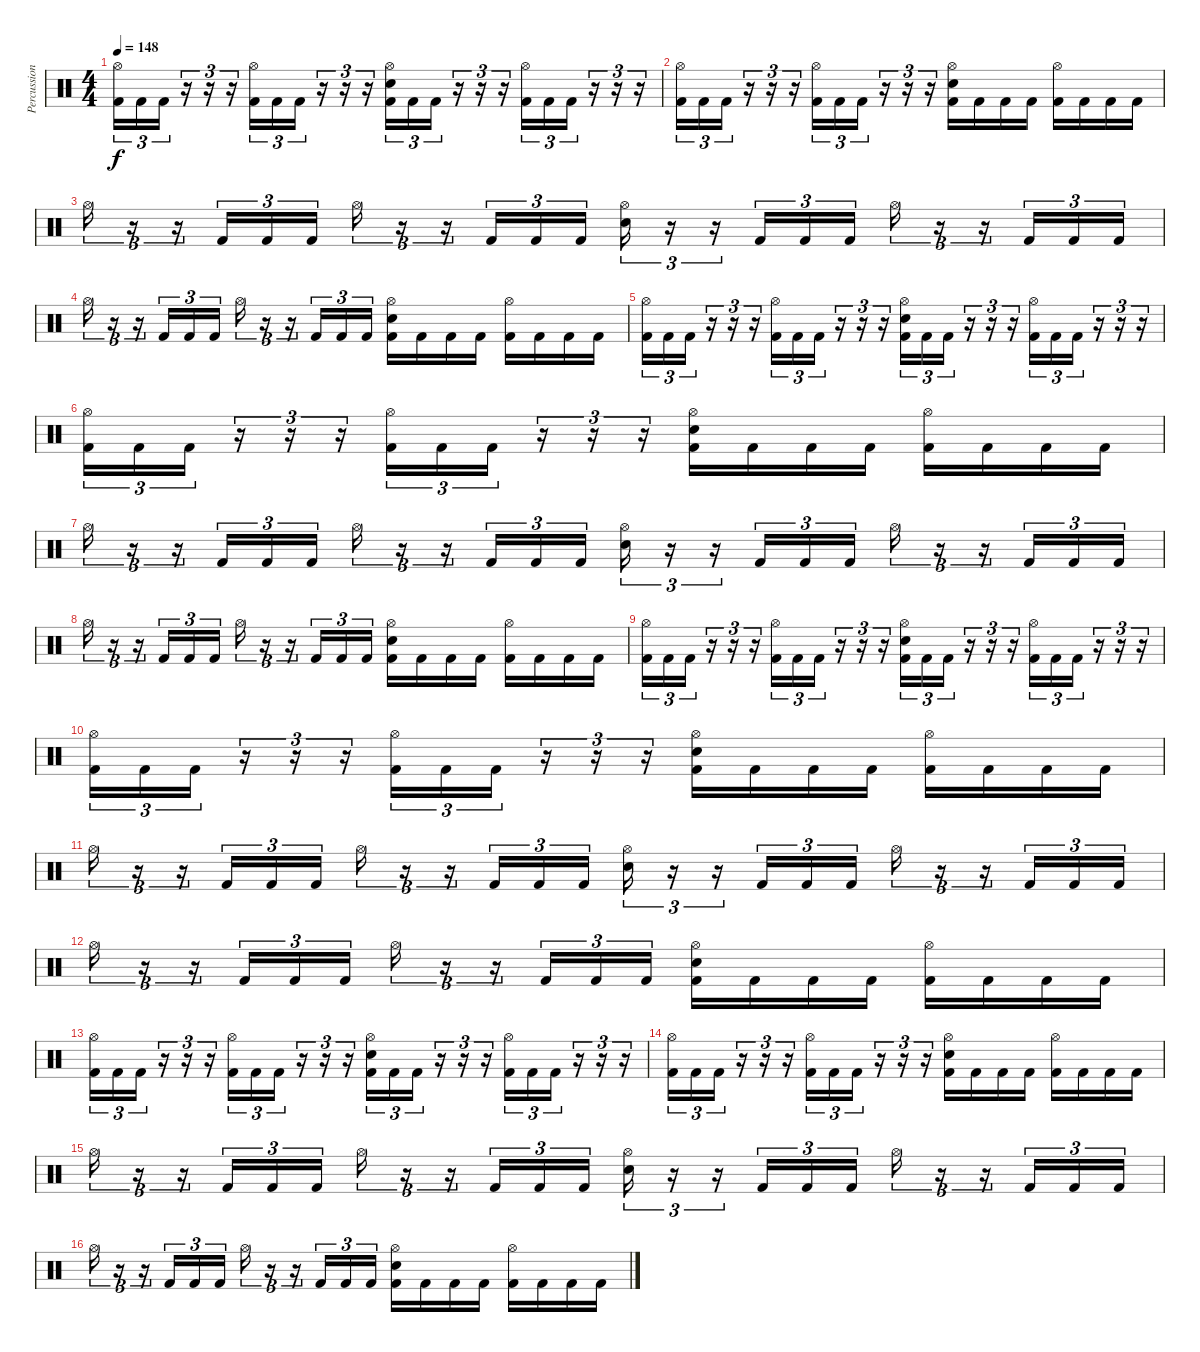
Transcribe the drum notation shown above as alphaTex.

\track ("Percussion" "Percussion") {instrument percussion}
\staff {score}
\articulation defaults
\ts (4 4)
\tempo 148
\clef neutral
\ks c
("Hi-Hat (open)" "Kick (hit) 2").16{tu (3 2) dy f} "Kick (hit) 2".16{tu (3 2)} "Kick (hit) 2".16{tu (3 2)} r.16{tu (3 2)} r.16{tu (3 2)} r.16{tu (3 2)} ("Hi-Hat (open)" "Kick (hit) 2").16{tu (3 2)} "Kick (hit) 2".16{tu (3 2)} "Kick (hit) 2".16{tu (3 2)} r.16{tu (3 2)} r.16{tu (3 2)} r.16{tu (3 2)} ("Hi-Hat (open)" "Electric Snare (hit)" "Kick (hit) 2").16{tu (3 2)} "Kick (hit) 2".16{tu (3 2)} "Kick (hit) 2".16{tu (3 2)} r.16{tu (3 2)} r.16{tu (3 2)} r.16{tu (3 2)} ("Hi-Hat (open)" "Kick (hit) 2").16{tu (3 2)} "Kick (hit) 2".16{tu (3 2)} "Kick (hit) 2".16{tu (3 2)} r.16{tu (3 2)} r.16{tu (3 2)} r.16{tu (3 2)} |
("Hi-Hat (open)" "Kick (hit) 2").16{tu (3 2)} "Kick (hit) 2".16{tu (3 2)} "Kick (hit) 2".16{tu (3 2)} r.16{tu (3 2)} r.16{tu (3 2)} r.16{tu (3 2)} ("Hi-Hat (open)" "Kick (hit) 2").16{tu (3 2)} "Kick (hit) 2".16{tu (3 2)} "Kick (hit) 2".16{tu (3 2)} r.16{tu (3 2)} r.16{tu (3 2)} r.16{tu (3 2)} ("Hi-Hat (open)" "Electric Snare (hit)" "Kick (hit) 2").16 "Kick (hit) 2".16 "Kick (hit) 2".16 "Kick (hit) 2".16 ("Hi-Hat (open)" "Kick (hit) 2").16 "Kick (hit) 2".16 "Kick (hit) 2".16 "Kick (hit) 2".16 |
"Hi-Hat (open)".16{tu (3 2)} r.16{tu (3 2)} r.16{tu (3 2)} "Kick (hit) 2".16{tu (3 2)} "Kick (hit) 2".16{tu (3 2)} "Kick (hit) 2".16{tu (3 2)} "Hi-Hat (open)".16{tu (3 2)} r.16{tu (3 2)} r.16{tu (3 2)} "Kick (hit) 2".16{tu (3 2)} "Kick (hit) 2".16{tu (3 2)} "Kick (hit) 2".16{tu (3 2)} ("Hi-Hat (open)" "Electric Snare (hit)").16{tu (3 2)} r.16{tu (3 2)} r.16{tu (3 2)} "Kick (hit) 2".16{tu (3 2)} "Kick (hit) 2".16{tu (3 2)} "Kick (hit) 2".16{tu (3 2)} "Hi-Hat (open)".16{tu (3 2)} r.16{tu (3 2)} r.16{tu (3 2)} "Kick (hit) 2".16{tu (3 2)} "Kick (hit) 2".16{tu (3 2)} "Kick (hit) 2".16{tu (3 2)} |
"Hi-Hat (open)".16{tu (3 2)} r.16{tu (3 2)} r.16{tu (3 2)} "Kick (hit) 2".16{tu (3 2)} "Kick (hit) 2".16{tu (3 2)} "Kick (hit) 2".16{tu (3 2)} "Hi-Hat (open)".16{tu (3 2)} r.16{tu (3 2)} r.16{tu (3 2)} "Kick (hit) 2".16{tu (3 2)} "Kick (hit) 2".16{tu (3 2)} "Kick (hit) 2".16{tu (3 2)} ("Hi-Hat (open)" "Electric Snare (hit)" "Kick (hit) 2").16 "Kick (hit) 2".16 "Kick (hit) 2".16 "Kick (hit) 2".16 ("Hi-Hat (open)" "Kick (hit) 2").16 "Kick (hit) 2".16 "Kick (hit) 2".16 "Kick (hit) 2".16 |
("Hi-Hat (open)" "Kick (hit) 2").16{tu (3 2)} "Kick (hit) 2".16{tu (3 2)} "Kick (hit) 2".16{tu (3 2)} r.16{tu (3 2)} r.16{tu (3 2)} r.16{tu (3 2)} ("Hi-Hat (open)" "Kick (hit) 2").16{tu (3 2)} "Kick (hit) 2".16{tu (3 2)} "Kick (hit) 2".16{tu (3 2)} r.16{tu (3 2)} r.16{tu (3 2)} r.16{tu (3 2)} ("Hi-Hat (open)" "Electric Snare (hit)" "Kick (hit) 2").16{tu (3 2)} "Kick (hit) 2".16{tu (3 2)} "Kick (hit) 2".16{tu (3 2)} r.16{tu (3 2)} r.16{tu (3 2)} r.16{tu (3 2)} ("Hi-Hat (open)" "Kick (hit) 2").16{tu (3 2)} "Kick (hit) 2".16{tu (3 2)} "Kick (hit) 2".16{tu (3 2)} r.16{tu (3 2)} r.16{tu (3 2)} r.16{tu (3 2)} |
("Hi-Hat (open)" "Kick (hit) 2").16{tu (3 2)} "Kick (hit) 2".16{tu (3 2)} "Kick (hit) 2".16{tu (3 2)} r.16{tu (3 2)} r.16{tu (3 2)} r.16{tu (3 2)} ("Hi-Hat (open)" "Kick (hit) 2").16{tu (3 2)} "Kick (hit) 2".16{tu (3 2)} "Kick (hit) 2".16{tu (3 2)} r.16{tu (3 2)} r.16{tu (3 2)} r.16{tu (3 2)} ("Hi-Hat (open)" "Electric Snare (hit)" "Kick (hit) 2").16 "Kick (hit) 2".16 "Kick (hit) 2".16 "Kick (hit) 2".16 ("Hi-Hat (open)" "Kick (hit) 2").16 "Kick (hit) 2".16 "Kick (hit) 2".16 "Kick (hit) 2".16 |
"Hi-Hat (open)".16{tu (3 2)} r.16{tu (3 2)} r.16{tu (3 2)} "Kick (hit) 2".16{tu (3 2)} "Kick (hit) 2".16{tu (3 2)} "Kick (hit) 2".16{tu (3 2)} "Hi-Hat (open)".16{tu (3 2)} r.16{tu (3 2)} r.16{tu (3 2)} "Kick (hit) 2".16{tu (3 2)} "Kick (hit) 2".16{tu (3 2)} "Kick (hit) 2".16{tu (3 2)} ("Hi-Hat (open)" "Electric Snare (hit)").16{tu (3 2)} r.16{tu (3 2)} r.16{tu (3 2)} "Kick (hit) 2".16{tu (3 2)} "Kick (hit) 2".16{tu (3 2)} "Kick (hit) 2".16{tu (3 2)} "Hi-Hat (open)".16{tu (3 2)} r.16{tu (3 2)} r.16{tu (3 2)} "Kick (hit) 2".16{tu (3 2)} "Kick (hit) 2".16{tu (3 2)} "Kick (hit) 2".16{tu (3 2)} |
"Hi-Hat (open)".16{tu (3 2)} r.16{tu (3 2)} r.16{tu (3 2)} "Kick (hit) 2".16{tu (3 2)} "Kick (hit) 2".16{tu (3 2)} "Kick (hit) 2".16{tu (3 2)} "Hi-Hat (open)".16{tu (3 2)} r.16{tu (3 2)} r.16{tu (3 2)} "Kick (hit) 2".16{tu (3 2)} "Kick (hit) 2".16{tu (3 2)} "Kick (hit) 2".16{tu (3 2)} ("Hi-Hat (open)" "Electric Snare (hit)" "Kick (hit) 2").16 "Kick (hit) 2".16 "Kick (hit) 2".16 "Kick (hit) 2".16 ("Hi-Hat (open)" "Kick (hit) 2").16 "Kick (hit) 2".16 "Kick (hit) 2".16 "Kick (hit) 2".16 |
("Hi-Hat (open)" "Kick (hit) 2").16{tu (3 2)} "Kick (hit) 2".16{tu (3 2)} "Kick (hit) 2".16{tu (3 2)} r.16{tu (3 2)} r.16{tu (3 2)} r.16{tu (3 2)} ("Hi-Hat (open)" "Kick (hit) 2").16{tu (3 2)} "Kick (hit) 2".16{tu (3 2)} "Kick (hit) 2".16{tu (3 2)} r.16{tu (3 2)} r.16{tu (3 2)} r.16{tu (3 2)} ("Hi-Hat (open)" "Electric Snare (hit)" "Kick (hit) 2").16{tu (3 2)} "Kick (hit) 2".16{tu (3 2)} "Kick (hit) 2".16{tu (3 2)} r.16{tu (3 2)} r.16{tu (3 2)} r.16{tu (3 2)} ("Hi-Hat (open)" "Kick (hit) 2").16{tu (3 2)} "Kick (hit) 2".16{tu (3 2)} "Kick (hit) 2".16{tu (3 2)} r.16{tu (3 2)} r.16{tu (3 2)} r.16{tu (3 2)} |
("Hi-Hat (open)" "Kick (hit) 2").16{tu (3 2)} "Kick (hit) 2".16{tu (3 2)} "Kick (hit) 2".16{tu (3 2)} r.16{tu (3 2)} r.16{tu (3 2)} r.16{tu (3 2)} ("Hi-Hat (open)" "Kick (hit) 2").16{tu (3 2)} "Kick (hit) 2".16{tu (3 2)} "Kick (hit) 2".16{tu (3 2)} r.16{tu (3 2)} r.16{tu (3 2)} r.16{tu (3 2)} ("Hi-Hat (open)" "Electric Snare (hit)" "Kick (hit) 2").16 "Kick (hit) 2".16 "Kick (hit) 2".16 "Kick (hit) 2".16 ("Hi-Hat (open)" "Kick (hit) 2").16 "Kick (hit) 2".16 "Kick (hit) 2".16 "Kick (hit) 2".16 |
"Hi-Hat (open)".16{tu (3 2)} r.16{tu (3 2)} r.16{tu (3 2)} "Kick (hit) 2".16{tu (3 2)} "Kick (hit) 2".16{tu (3 2)} "Kick (hit) 2".16{tu (3 2)} "Hi-Hat (open)".16{tu (3 2)} r.16{tu (3 2)} r.16{tu (3 2)} "Kick (hit) 2".16{tu (3 2)} "Kick (hit) 2".16{tu (3 2)} "Kick (hit) 2".16{tu (3 2)} ("Hi-Hat (open)" "Electric Snare (hit)").16{tu (3 2)} r.16{tu (3 2)} r.16{tu (3 2)} "Kick (hit) 2".16{tu (3 2)} "Kick (hit) 2".16{tu (3 2)} "Kick (hit) 2".16{tu (3 2)} "Hi-Hat (open)".16{tu (3 2)} r.16{tu (3 2)} r.16{tu (3 2)} "Kick (hit) 2".16{tu (3 2)} "Kick (hit) 2".16{tu (3 2)} "Kick (hit) 2".16{tu (3 2)} |
"Hi-Hat (open)".16{tu (3 2)} r.16{tu (3 2)} r.16{tu (3 2)} "Kick (hit) 2".16{tu (3 2)} "Kick (hit) 2".16{tu (3 2)} "Kick (hit) 2".16{tu (3 2)} "Hi-Hat (open)".16{tu (3 2)} r.16{tu (3 2)} r.16{tu (3 2)} "Kick (hit) 2".16{tu (3 2)} "Kick (hit) 2".16{tu (3 2)} "Kick (hit) 2".16{tu (3 2)} ("Hi-Hat (open)" "Electric Snare (hit)" "Kick (hit) 2").16 "Kick (hit) 2".16 "Kick (hit) 2".16 "Kick (hit) 2".16 ("Hi-Hat (open)" "Kick (hit) 2").16 "Kick (hit) 2".16 "Kick (hit) 2".16 "Kick (hit) 2".16 |
("Hi-Hat (open)" "Kick (hit) 2").16{tu (3 2)} "Kick (hit) 2".16{tu (3 2)} "Kick (hit) 2".16{tu (3 2)} r.16{tu (3 2)} r.16{tu (3 2)} r.16{tu (3 2)} ("Hi-Hat (open)" "Kick (hit) 2").16{tu (3 2)} "Kick (hit) 2".16{tu (3 2)} "Kick (hit) 2".16{tu (3 2)} r.16{tu (3 2)} r.16{tu (3 2)} r.16{tu (3 2)} ("Hi-Hat (open)" "Electric Snare (hit)" "Kick (hit) 2").16{tu (3 2)} "Kick (hit) 2".16{tu (3 2)} "Kick (hit) 2".16{tu (3 2)} r.16{tu (3 2)} r.16{tu (3 2)} r.16{tu (3 2)} ("Hi-Hat (open)" "Kick (hit) 2").16{tu (3 2)} "Kick (hit) 2".16{tu (3 2)} "Kick (hit) 2".16{tu (3 2)} r.16{tu (3 2)} r.16{tu (3 2)} r.16{tu (3 2)} |
("Hi-Hat (open)" "Kick (hit) 2").16{tu (3 2)} "Kick (hit) 2".16{tu (3 2)} "Kick (hit) 2".16{tu (3 2)} r.16{tu (3 2)} r.16{tu (3 2)} r.16{tu (3 2)} ("Hi-Hat (open)" "Kick (hit) 2").16{tu (3 2)} "Kick (hit) 2".16{tu (3 2)} "Kick (hit) 2".16{tu (3 2)} r.16{tu (3 2)} r.16{tu (3 2)} r.16{tu (3 2)} ("Hi-Hat (open)" "Electric Snare (hit)" "Kick (hit) 2").16 "Kick (hit) 2".16 "Kick (hit) 2".16 "Kick (hit) 2".16 ("Hi-Hat (open)" "Kick (hit) 2").16 "Kick (hit) 2".16 "Kick (hit) 2".16 "Kick (hit) 2".16 |
"Hi-Hat (open)".16{tu (3 2)} r.16{tu (3 2)} r.16{tu (3 2)} "Kick (hit) 2".16{tu (3 2)} "Kick (hit) 2".16{tu (3 2)} "Kick (hit) 2".16{tu (3 2)} "Hi-Hat (open)".16{tu (3 2)} r.16{tu (3 2)} r.16{tu (3 2)} "Kick (hit) 2".16{tu (3 2)} "Kick (hit) 2".16{tu (3 2)} "Kick (hit) 2".16{tu (3 2)} ("Hi-Hat (open)" "Electric Snare (hit)").16{tu (3 2)} r.16{tu (3 2)} r.16{tu (3 2)} "Kick (hit) 2".16{tu (3 2)} "Kick (hit) 2".16{tu (3 2)} "Kick (hit) 2".16{tu (3 2)} "Hi-Hat (open)".16{tu (3 2)} r.16{tu (3 2)} r.16{tu (3 2)} "Kick (hit) 2".16{tu (3 2)} "Kick (hit) 2".16{tu (3 2)} "Kick (hit) 2".16{tu (3 2)} |
"Hi-Hat (open)".16{tu (3 2)} r.16{tu (3 2)} r.16{tu (3 2)} "Kick (hit) 2".16{tu (3 2)} "Kick (hit) 2".16{tu (3 2)} "Kick (hit) 2".16{tu (3 2)} "Hi-Hat (open)".16{tu (3 2)} r.16{tu (3 2)} r.16{tu (3 2)} "Kick (hit) 2".16{tu (3 2)} "Kick (hit) 2".16{tu (3 2)} "Kick (hit) 2".16{tu (3 2)} ("Hi-Hat (open)" "Electric Snare (hit)" "Kick (hit) 2").16 "Kick (hit) 2".16 "Kick (hit) 2".16 "Kick (hit) 2".16 ("Hi-Hat (open)" "Kick (hit) 2").16 "Kick (hit) 2".16 "Kick (hit) 2".16 "Kick (hit) 2".16
